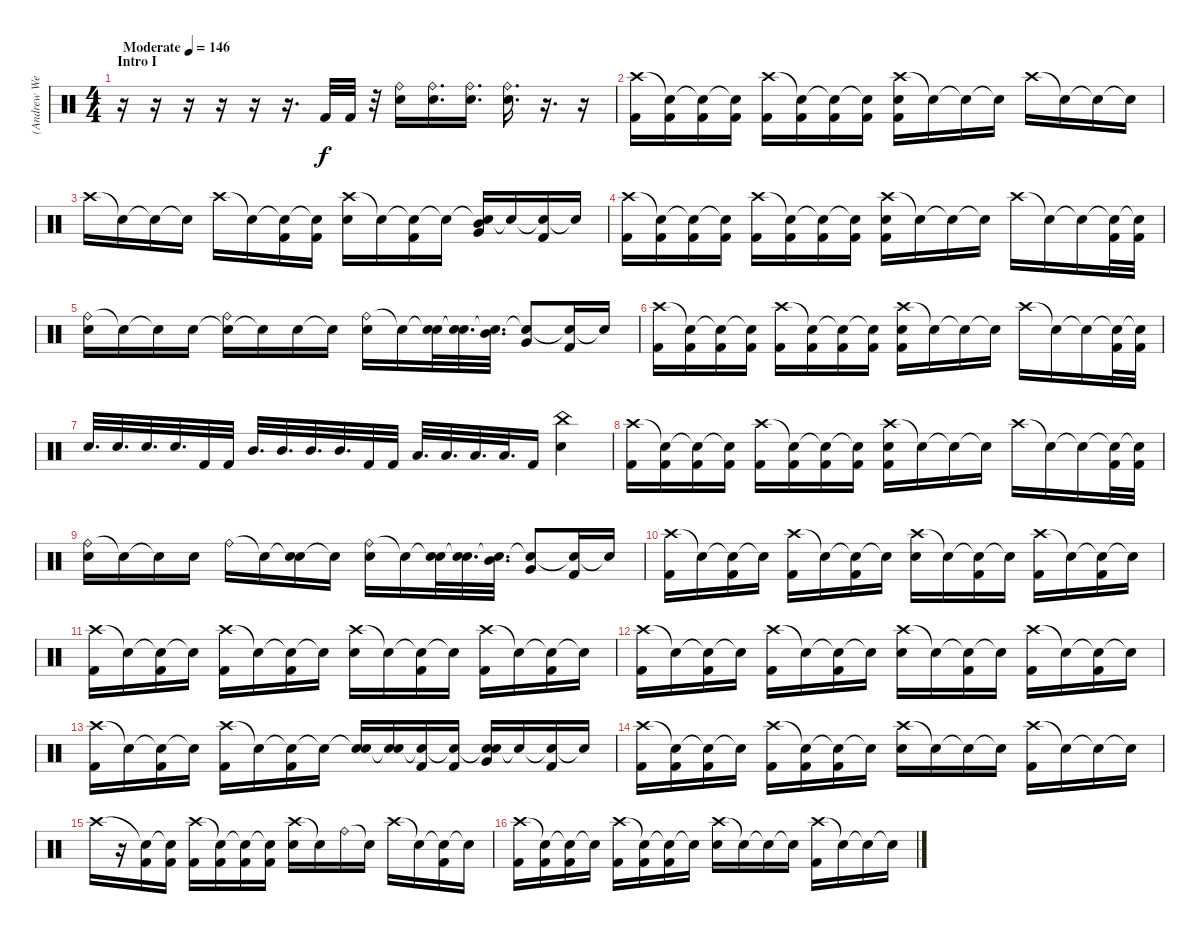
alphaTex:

\track ("(Andrew Wetzel) Drums" "(Andrew We") {instrument percussion}
\staff {score}
\articulation defaults
\ts (4 4)
\section ("" "Intro I")
\tempo (146 "Moderate")
\clef neutral
\ks c
r.16{dy f} r.16 r.16 r.16 r.16 r.16{d} "Kick (hit) 2".32 "Kick (hit) 2".32 r.32 ("Ride (bell)" "Electric Snare (hit)").16 ("Ride (bell)" "Electric Snare (hit)").16{d} ("Ride (bell)" "Electric Snare (hit)").16{d} ("Ride (bell)" "Electric Snare (hit)").16{d} r.16{d} r.16 |
("Crash high (hit)" "Kick (hit) 2").16 ("Snare (hit)"{t} "Kick (hit) 2").16 ("Snare (hit)"{t} "Kick (hit) 2").16 ("Snare (hit)"{t} "Kick (hit) 2").16 ("Crash high (hit)" "Kick (hit) 2").16 ("Snare (hit)"{t} "Kick (hit) 2").16 ("Snare (hit)"{t} "Kick (hit) 2").16 ("Snare (hit)"{t} "Kick (hit) 2").16 ("Crash high (hit)" "Electric Snare (hit)" "Kick (hit) 2").16 "Snare (hit)"{t}.16 "Snare (hit)"{t}.16 "Snare (hit)"{t}.16 "Crash high (hit)".16 "Snare (hit)"{t}.16 "Snare (hit)"{t}.16 "Snare (hit)"{t}.16 |
"Crash high (hit)".16 "Snare (hit)"{t}.16 "Snare (hit)"{t}.16 "Snare (hit)"{t}.16 "Crash high (hit)".16 "Snare (hit)"{t}.16 ("Snare (hit)"{t} "Kick (hit) 2").16 ("Snare (hit)"{t} "Kick (hit) 2").16 ("Crash high (hit)" "Electric Snare (hit)").16 "Snare (hit)"{t}.16 ("Snare (hit)"{t} "Kick (hit) 2").16 "Snare (hit)"{t}.16 ("Snare (hit)"{t} "Mid Tom (hit)" "Very Low Tom (hit)").16 "Snare (hit)"{t}.16 ("Snare (hit)"{t} "Kick (hit) 2").16 "Snare (hit)"{t}.16 |
("Crash high (hit)" "Kick (hit) 2").16 ("Snare (hit)"{t} "Kick (hit) 2").16 ("Snare (hit)"{t} "Kick (hit) 2").16 ("Snare (hit)"{t} "Kick (hit) 2").16 ("Crash high (hit)" "Kick (hit) 2").16 ("Snare (hit)"{t} "Kick (hit) 2").16 ("Snare (hit)"{t} "Kick (hit) 2").16 ("Snare (hit)"{t} "Kick (hit) 2").16 ("Crash high (hit)" "Electric Snare (hit)" "Kick (hit) 2").16 "Snare (hit)"{t}.16 "Snare (hit)"{t}.16 "Snare (hit)"{t}.16 "Crash high (hit)".16 "Snare (hit)"{t}.16 "Snare (hit)"{t}.16 ("Snare (hit)"{t} "Kick (hit) 2").32 ("Snare (hit)"{t} "Kick (hit) 2").32 |
("Ride (bell)" "Electric Snare (hit)").16 "Snare (hit)"{t}.16 "Snare (hit)"{t}.16 "Electric Snare (hit)".16 ("Snare (hit)"{t} "Ride (bell)").16 "Snare (hit)"{t}.16 "Electric Snare (hit)".16 "Snare (hit)"{t}.16 ("Ride (bell)" "Electric Snare (hit)").16 "Snare (hit)"{t}.16 ("Snare (hit)"{t} "Electric Snare (hit)").32 ("Snare (hit)"{t} "Electric Snare (hit)").32{d} ("Snare (hit)"{t} "Mid Tom (hit)").32{d} ("Snare (hit)"{t} "Very Low Tom (hit)").8 ("Snare (hit)"{t} "Kick (hit) 2").16 "Snare (hit)"{t}.16 |
("Crash high (hit)" "Kick (hit) 2").16 ("Snare (hit)"{t} "Kick (hit) 2").16 ("Snare (hit)"{t} "Kick (hit) 2").16 ("Snare (hit)"{t} "Kick (hit) 2").16 ("Crash high (hit)" "Kick (hit) 2").16 ("Snare (hit)"{t} "Kick (hit) 2").16 ("Snare (hit)"{t} "Kick (hit) 2").16 ("Snare (hit)"{t} "Kick (hit) 2").16 ("Crash high (hit)" "Electric Snare (hit)" "Kick (hit) 2").16 "Snare (hit)"{t}.16 "Snare (hit)"{t}.16 "Snare (hit)"{t}.16 "Crash high (hit)".16 "Snare (hit)"{t}.16 "Snare (hit)"{t}.16 ("Snare (hit)"{t} "Kick (hit) 2").32 ("Snare (hit)"{t} "Kick (hit) 2").32 |
"Electric Snare (hit)".32{d} "Electric Snare (hit)".32{d} "Electric Snare (hit)".32{d} "Electric Snare (hit)".32{d} "Kick (hit) 2".32 "Kick (hit) 2".32 "Mid Tom (hit)".32{d} "Mid Tom (hit)".32{d} "Mid Tom (hit)".32{d} "Mid Tom (hit)".32{d} "Kick (hit) 2".32 "Kick (hit) 2".32 "Low Tom (hit)".32{d} "Low Tom (hit)".32{d} "Low Tom (hit)".32{d} "Low Tom (hit)".32{d} "Kick (hit) 2".16 ("China (hit)" "Electric Snare (hit)").4 |
("Crash high (hit)" "Kick (hit) 2").16 ("Snare (hit)"{t} "Kick (hit) 2").16 ("Snare (hit)"{t} "Kick (hit) 2").16 ("Snare (hit)"{t} "Kick (hit) 2").16 ("Crash high (hit)" "Kick (hit) 2").16 ("Snare (hit)"{t} "Kick (hit) 2").16 ("Snare (hit)"{t} "Kick (hit) 2").16 ("Snare (hit)"{t} "Kick (hit) 2").16 ("Crash high (hit)" "Electric Snare (hit)" "Kick (hit) 2").16 "Snare (hit)"{t}.16 "Snare (hit)"{t}.16 "Snare (hit)"{t}.16 "Crash high (hit)".16 "Snare (hit)"{t}.16 "Snare (hit)"{t}.16 ("Snare (hit)"{t} "Kick (hit) 2").32 ("Snare (hit)"{t} "Kick (hit) 2").32 |
("Ride (bell)" "Electric Snare (hit)").16 "Snare (hit)"{t}.16 "Snare (hit)"{t}.16 "Electric Snare (hit)".16 "Ride (bell)".16 "Snare (hit)"{t}.16 ("Snare (hit)"{t} "Electric Snare (hit)").16 "Snare (hit)"{t}.16 ("Ride (bell)" "Electric Snare (hit)").16 "Snare (hit)"{t}.16 ("Snare (hit)"{t} "Electric Snare (hit)").32 ("Snare (hit)"{t} "Electric Snare (hit)").32{d} ("Snare (hit)"{t} "Mid Tom (hit)").32{d} ("Snare (hit)"{t} "Very Low Tom (hit)").8 ("Snare (hit)"{t} "Kick (hit) 2").16 "Snare (hit)"{t}.16 |
("Crash high (hit)" "Kick (hit) 2").16 "Snare (hit)"{t}.16 ("Snare (hit)"{t} "Kick (hit) 2").16 "Snare (hit)"{t}.16 ("Crash high (hit)" "Kick (hit) 2").16 "Snare (hit)"{t}.16 ("Snare (hit)"{t} "Kick (hit) 2").16 "Snare (hit)"{t}.16 ("Crash high (hit)" "Electric Snare (hit)").16 "Snare (hit)"{t}.16 ("Snare (hit)"{t} "Kick (hit) 2").16 "Snare (hit)"{t}.16 ("Crash high (hit)" "Kick (hit) 2").16 "Snare (hit)"{t}.16 ("Snare (hit)"{t} "Kick (hit) 2").16 "Snare (hit)"{t}.16 |
("Crash high (hit)" "Kick (hit) 2").16 "Snare (hit)"{t}.16 ("Snare (hit)"{t} "Kick (hit) 2").16 "Snare (hit)"{t}.16 ("Crash high (hit)" "Kick (hit) 2").16 "Snare (hit)"{t}.16 ("Snare (hit)"{t} "Kick (hit) 2").16 "Snare (hit)"{t}.16 ("Crash high (hit)" "Electric Snare (hit)").16 "Snare (hit)"{t}.16 ("Snare (hit)"{t} "Kick (hit) 2").16 "Snare (hit)"{t}.16 ("Crash high (hit)" "Kick (hit) 2").16 "Snare (hit)"{t}.16 ("Snare (hit)"{t} "Kick (hit) 2").16 "Snare (hit)"{t}.16 |
("Crash high (hit)" "Kick (hit) 2").16 "Snare (hit)"{t}.16 ("Snare (hit)"{t} "Kick (hit) 2").16 "Snare (hit)"{t}.16 ("Crash high (hit)" "Kick (hit) 2").16 "Snare (hit)"{t}.16 ("Snare (hit)"{t} "Kick (hit) 2").16 "Snare (hit)"{t}.16 ("Crash high (hit)" "Electric Snare (hit)").16 "Snare (hit)"{t}.16 ("Snare (hit)"{t} "Kick (hit) 2").16 "Snare (hit)"{t}.16 ("Crash high (hit)" "Kick (hit) 2").16 "Snare (hit)"{t}.16 ("Snare (hit)"{t} "Kick (hit) 2").16 "Snare (hit)"{t}.16 |
("Crash high (hit)" "Kick (hit) 2").16 "Snare (hit)"{t}.16 ("Snare (hit)"{t} "Kick (hit) 2").16 "Snare (hit)"{t}.16 ("Crash high (hit)" "Kick (hit) 2").16 "Snare (hit)"{t}.16 ("Snare (hit)"{t} "Kick (hit) 2").16 "Snare (hit)"{t}.16 ("Snare (hit)"{t} "Electric Snare (hit)").16 ("Snare (hit)"{t} "Electric Snare (hit)").16 ("Snare (hit)"{t} "Kick (hit) 2").16 ("Snare (hit)"{t} "Kick (hit) 2").16 ("Snare (hit)"{t} "Electric Snare (hit)" "Very Low Tom (hit)").16 "Snare (hit)"{t}.16 ("Snare (hit)"{t} "Kick (hit) 2").16 "Snare (hit)"{t}.16 |
("Crash high (hit)" "Kick (hit) 2").16 ("Snare (hit)"{t} "Kick (hit) 2").16 ("Snare (hit)"{t} "Kick (hit) 2").16 "Snare (hit)"{t}.16 ("Crash high (hit)" "Kick (hit) 2").16 ("Snare (hit)"{t} "Kick (hit) 2").16 ("Snare (hit)"{t} "Kick (hit) 2").16 "Snare (hit)"{t}.16 ("Crash high (hit)" "Electric Snare (hit)").16 "Snare (hit)"{t}.16 "Snare (hit)"{t}.16 "Snare (hit)"{t}.16 ("Crash high (hit)" "Kick (hit) 2").16 "Snare (hit)"{t}.16 "Snare (hit)"{t}.16 "Snare (hit)"{t}.16 |
"Crash high (hit)".16 r.16 ("Snare (hit)"{t} "Kick (hit) 2").16 ("Snare (hit)"{t} "Kick (hit) 2").16 ("Crash high (hit)" "Kick (hit) 2").16 ("Snare (hit)"{t} "Kick (hit) 2").16 ("Snare (hit)"{t} "Kick (hit) 2").16 ("Snare (hit)"{t} "Kick (hit) 2").16 ("Crash high (hit)" "Electric Snare (hit)").16 "Snare (hit)"{t}.16 "Ride (bell)".16 "Snare (hit)"{t}.16 "Crash high (hit)".16 "Snare (hit)"{t}.16 ("Snare (hit)"{t} "Kick (hit) 2").16 "Snare (hit)"{t}.16 |
("Crash high (hit)" "Kick (hit) 2").16 ("Snare (hit)"{t} "Kick (hit) 2").16 ("Snare (hit)"{t} "Kick (hit) 2").16 "Snare (hit)"{t}.16 ("Crash high (hit)" "Kick (hit) 2").16 ("Snare (hit)"{t} "Kick (hit) 2").16 ("Snare (hit)"{t} "Kick (hit) 2").16 "Snare (hit)"{t}.16 ("Crash high (hit)" "Electric Snare (hit)").16 "Snare (hit)"{t}.16 "Snare (hit)"{t}.16 "Snare (hit)"{t}.16 ("Crash high (hit)" "Kick (hit) 2").16 "Snare (hit)"{t}.16 "Snare (hit)"{t}.16 "Snare (hit)"{t}.16
